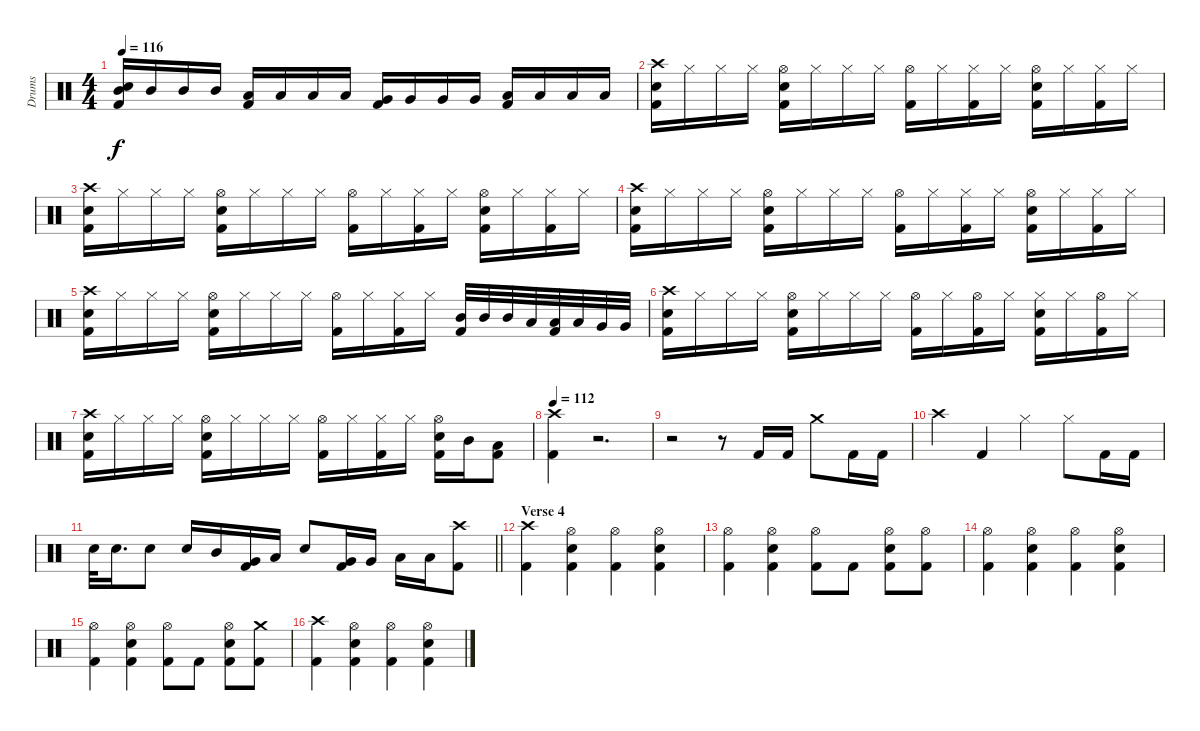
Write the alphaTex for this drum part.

\track ("Drums" "Drums") {instrument percussion}
\staff {score}
\articulation defaults
\ts (4 4)
\tempo 116
\clef neutral
\ks c
("Mid Tom (hit)" "Snare (hit) 2" "Kick (hit) 2").16{dy f} "Mid Tom (hit)".16 "Mid Tom (hit)".16 "Mid Tom (hit)".16 ("Low Tom (hit)" "Kick (hit) 2").16 "Low Tom (hit)".16 "Low Tom (hit)".16 "Low Tom (hit)".16 ("Very Low Tom (hit)" "Kick (hit) 2").16 "Very Low Tom (hit)".16 "Very Low Tom (hit)".16 "Very Low Tom (hit)".16 ("Low Floor Tom (hit)" "Kick (hit) 2").16 "Low Floor Tom (hit)".16 "Low Floor Tom (hit)".16 "Low Floor Tom (hit)".16 |
("Kick (hit) 2" "Snare (hit) 2" "Crash high (hit)").16 "Hi-Hat (closed)".16 "Hi-Hat (closed)".16 "Hi-Hat (closed)".16 ("Hi-Hat (open)" "Kick (hit) 2" "Snare (hit) 2").16 "Hi-Hat (closed)".16 "Hi-Hat (closed)".16 "Hi-Hat (closed)".16 ("Kick (hit) 2" "Hi-Hat (open)").16 "Hi-Hat (closed)".16 ("Kick (hit) 2" "Hi-Hat (closed)").16 "Hi-Hat (closed)".16 ("Snare (hit) 2" "Kick (hit) 2" "Hi-Hat (open)").16 "Hi-Hat (closed)".16 ("Kick (hit) 2" "Hi-Hat (closed)").16 "Hi-Hat (closed)".16 |
("Kick (hit) 2" "Snare (hit) 2" "Crash high (hit)").16 "Hi-Hat (closed)".16 "Hi-Hat (closed)".16 "Hi-Hat (closed)".16 ("Hi-Hat (open)" "Kick (hit) 2" "Snare (hit) 2").16 "Hi-Hat (closed)".16 "Hi-Hat (closed)".16 "Hi-Hat (closed)".16 ("Kick (hit) 2" "Hi-Hat (open)").16 "Hi-Hat (closed)".16 ("Kick (hit) 2" "Hi-Hat (closed)").16 "Hi-Hat (closed)".16 ("Snare (hit) 2" "Kick (hit) 2" "Hi-Hat (open)").16 "Hi-Hat (closed)".16 ("Kick (hit) 2" "Hi-Hat (closed)").16 "Hi-Hat (closed)".16 |
("Kick (hit) 2" "Snare (hit) 2" "Crash high (hit)").16 "Hi-Hat (closed)".16 "Hi-Hat (closed)".16 "Hi-Hat (closed)".16 ("Hi-Hat (open)" "Kick (hit) 2" "Snare (hit) 2").16 "Hi-Hat (closed)".16 "Hi-Hat (closed)".16 "Hi-Hat (closed)".16 ("Kick (hit) 2" "Hi-Hat (open)").16 "Hi-Hat (closed)".16 ("Kick (hit) 2" "Hi-Hat (closed)").16 "Hi-Hat (closed)".16 ("Snare (hit) 2" "Kick (hit) 2" "Hi-Hat (open)").16 "Hi-Hat (closed)".16 ("Kick (hit) 2" "Hi-Hat (closed)").16 "Hi-Hat (closed)".16 |
("Kick (hit) 2" "Snare (hit) 2" "Crash high (hit)").16 "Hi-Hat (closed)".16 "Hi-Hat (closed)".16 "Hi-Hat (closed)".16 ("Hi-Hat (open)" "Kick (hit) 2" "Snare (hit) 2").16 "Hi-Hat (closed)".16 "Hi-Hat (closed)".16 "Hi-Hat (closed)".16 ("Kick (hit) 2" "Hi-Hat (open)").16 "Hi-Hat (closed)".16 ("Hi-Hat (closed)" "Kick (hit) 2").16 "Hi-Hat (closed)".16 ("Kick (hit) 2" "Mid Tom (hit)").32 "Mid Tom (hit)".32 "Mid Tom (hit)".32 "Low Tom (hit)".32 ("Kick (hit) 2" "Low Tom (hit)").32 "Low Tom (hit)".32 "Very Low Tom (hit)".32 "Very Low Tom (hit)".32 |
("Kick (hit) 2" "Snare (hit) 2" "Crash high (hit)").16 "Hi-Hat (closed)".16 "Hi-Hat (closed)".16 "Hi-Hat (closed)".16 ("Hi-Hat (open)" "Kick (hit) 2" "Snare (hit) 2").16 "Hi-Hat (closed)".16 "Hi-Hat (closed)".16 "Hi-Hat (closed)".16 ("Kick (hit) 2" "Hi-Hat (open)").16 "Hi-Hat (closed)".16 ("Kick (hit) 2" "Hi-Hat (open)").16 "Hi-Hat (closed)".16 ("Snare (hit) 2" "Kick (hit) 2" "Hi-Hat (closed)").16 "Hi-Hat (closed)".16 ("Kick (hit) 2" "Hi-Hat (open)").16 "Hi-Hat (closed)".16 |
("Kick (hit) 2" "Snare (hit) 2" "Crash high (hit)").16 "Hi-Hat (closed)".16 "Hi-Hat (closed)".16 "Hi-Hat (closed)".16 ("Hi-Hat (open)" "Kick (hit) 2" "Snare (hit) 2").16 "Hi-Hat (closed)".16 "Hi-Hat (closed)".16 "Hi-Hat (closed)".16 ("Kick (hit) 2" "Hi-Hat (open)").16 "Hi-Hat (closed)".16 ("Kick (hit) 2" "Hi-Hat (closed)").16 "Hi-Hat (closed)".16 ("Snare (hit) 2" "Kick (hit) 2" "Hi-Hat (open)").16 "Mid Tom (hit)".16 ("Kick (hit) 2" "Low Tom (hit)").8 |
\tempo 112
("Kick (hit) 2" "Crash high (hit)").4 r.2{d} |
r.2 r.8 "Kick (hit) 2".16 "Kick (hit) 2".16 "Crash medium (hit)".8 "Kick (hit) 2".16 "Kick (hit) 2".16 |
"Crash high (hit)".4 "Kick (hit) 2".4 "Hi-Hat (closed)".4 "Hi-Hat (closed)".8 "Kick (hit) 2".16 "Kick (hit) 2".16 |
\barLineRight lightlight "Snare (hit) 2".32 "Snare (hit) 2".16{d} "Snare (hit) 2".8 "Snare (hit) 2".16 "Mid Tom (hit)".16
("Kick (hit) 2" "Very Low Tom (hit)").16 "Low Floor Tom (hit)".16 "Snare (hit) 2".8 ("Kick (hit) 2" "Very Low Tom (hit)").16 "Very Low Tom (hit)".16 "Low Floor Tom (hit)".16 "Low Floor Tom (hit)".16 ("Kick (hit) 2" "Crash high (hit)").8 |
\section ("" "Verse 4")
("Kick (hit) 2" "Crash high (hit)").4 ("Snare (hit) 2" "Hi-Hat (open)" "Kick (hit) 2").4 ("Kick (hit) 2" "Hi-Hat (open)").4 ("Snare (hit) 2" "Kick (hit) 2" "Hi-Hat (open)").4 |
("Hi-Hat (open)" "Kick (hit) 2").4 ("Snare (hit) 2" "Hi-Hat (open)" "Kick (hit) 2").4 ("Hi-Hat (open)" "Kick (hit) 2").8 "Kick (hit) 2".8 ("Snare (hit) 2" "Hi-Hat (open)" "Kick (hit) 2").8 ("Kick (hit) 2" "Hi-Hat (open)").8 |
("Kick (hit) 2" "Hi-Hat (open)").4 ("Hi-Hat (open)" "Kick (hit) 2" "Snare (hit) 2").4 ("Hi-Hat (open)" "Kick (hit) 2").4 ("Hi-Hat (open)" "Kick (hit) 2" "Snare (hit) 2").4 |
("Hi-Hat (open)" "Kick (hit) 2").4 ("Hi-Hat (open)" "Kick (hit) 2" "Snare (hit) 2").4 ("Hi-Hat (open)" "Kick (hit) 2").8 "Kick (hit) 2".8 ("Kick (hit) 2" "Hi-Hat (open)" "Snare (hit) 2").8 ("Kick (hit) 2" "Crash medium (hit)").8 |
("Kick (hit) 2" "Crash high (hit)").4 ("Hi-Hat (open)" "Kick (hit) 2" "Snare (hit) 2").4 ("Hi-Hat (open)" "Kick (hit) 2").4 ("Snare (hit) 2" "Kick (hit) 2" "Hi-Hat (open)").4
